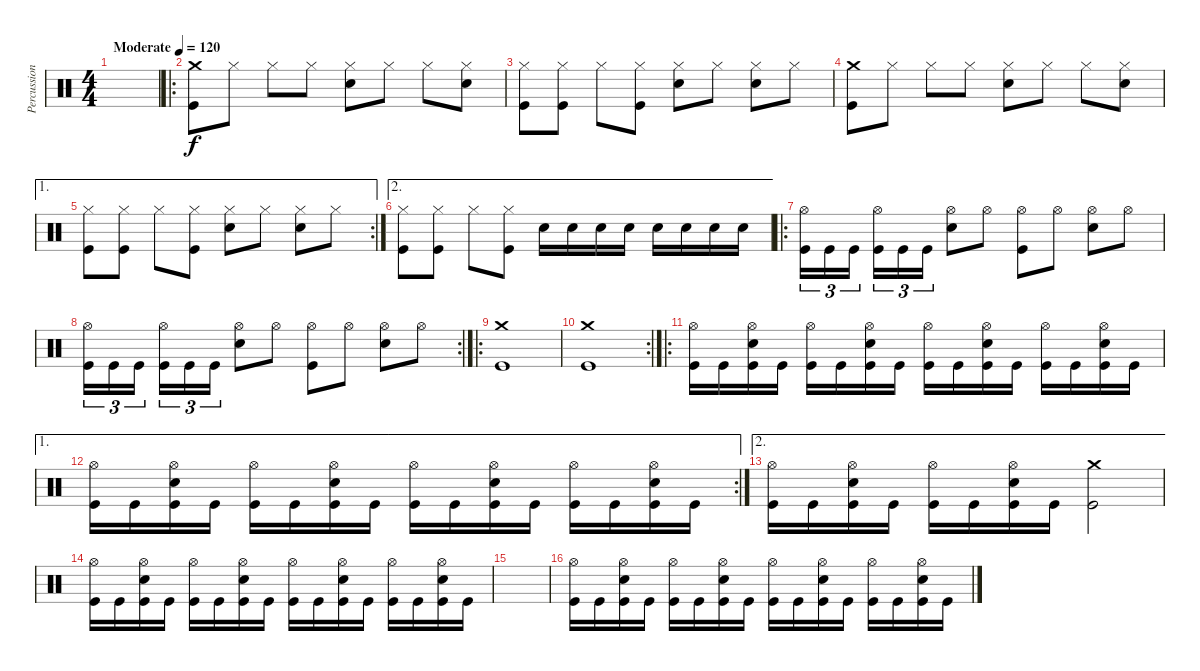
\track ("Percussion" "Percussion") {instrument percussion}
\staff {score}
\articulation defaults
\ts (4 4)
\tempo (120 "Moderate")
\clef neutral
\ks c
|
\ro
("Crash medium (hit)" "Kick (hit)").8 "Hi-Hat (closed)".8 "Hi-Hat (closed)".8 "Hi-Hat (closed)".8 ("Hi-Hat (closed)" "Snare (hit) 2").8 "Hi-Hat (closed)".8 "Hi-Hat (closed)".8 ("Hi-Hat (closed)" "Snare (hit) 2").8 |
("Hi-Hat (closed)" "Kick (hit)").8 ("Hi-Hat (closed)" "Kick (hit)").8 "Hi-Hat (closed)".8 ("Hi-Hat (closed)" "Kick (hit)").8 ("Hi-Hat (closed)" "Snare (hit) 2").8 "Hi-Hat (closed)".8 ("Hi-Hat (closed)" "Snare (hit) 2").8 "Hi-Hat (closed)".8 |
("Crash medium (hit)" "Kick (hit)").8 "Hi-Hat (closed)".8 "Hi-Hat (closed)".8 "Hi-Hat (closed)".8 ("Hi-Hat (closed)" "Snare (hit) 2").8 "Hi-Hat (closed)".8 "Hi-Hat (closed)".8 ("Hi-Hat (closed)" "Snare (hit) 2").8 |
\ae 1
\rc 2
("Hi-Hat (closed)" "Kick (hit)").8 ("Hi-Hat (closed)" "Kick (hit)").8 "Hi-Hat (closed)".8 ("Hi-Hat (closed)" "Kick (hit)").8 ("Hi-Hat (closed)" "Snare (hit) 2").8 "Hi-Hat (closed)".8 ("Hi-Hat (closed)" "Snare (hit) 2").8 "Hi-Hat (closed)".8 |
\ae 2
("Hi-Hat (closed)" "Kick (hit)").8 ("Hi-Hat (closed)" "Kick (hit)").8 "Hi-Hat (closed)".8 ("Hi-Hat (closed)" "Kick (hit)").8 "Snare (hit) 2".16 "Snare (hit) 2".16 "Snare (hit) 2".16 "Snare (hit) 2".16 "Snare (hit) 2".16 "Snare (hit) 2".16 "Snare (hit) 2".16 "Snare (hit) 2".16 |
\ro
("Hi-Hat (open)" "Kick (hit)").16{tu (3 2)} "Kick (hit)".16{tu (3 2)} "Kick (hit)".16{tu (3 2) beam splitsecondary} ("Hi-Hat (open)" "Kick (hit)").16{tu (3 2)} "Kick (hit)".16{tu (3 2)} "Kick (hit)".16{tu (3 2)} ("Hi-Hat (open)" "Snare (hit) 2").8 "Hi-Hat (open)".8 ("Hi-Hat (open)" "Kick (hit)").8 "Hi-Hat (open)".8 ("Hi-Hat (open)" "Snare (hit) 2").8 "Hi-Hat (open)".8 |
\rc 2
("Hi-Hat (open)" "Kick (hit)").16{tu (3 2)} "Kick (hit)".16{tu (3 2)} "Kick (hit)".16{tu (3 2) beam splitsecondary} ("Hi-Hat (open)" "Kick (hit)").16{tu (3 2)} "Kick (hit)".16{tu (3 2)} "Kick (hit)".16{tu (3 2)} ("Hi-Hat (open)" "Snare (hit) 2").8 "Hi-Hat (open)".8 ("Hi-Hat (open)" "Kick (hit)").8 "Hi-Hat (open)".8 ("Hi-Hat (open)" "Snare (hit) 2").8 "Hi-Hat (open)".8 |
\ro
("Crash medium (hit)" "Kick (hit)").1 |
\rc 2
("Crash medium (hit)" "Kick (hit)").1 |
\ro
("Hi-Hat (open)" "Kick (hit)").16 "Kick (hit)".16 ("Hi-Hat (open)" "Snare (hit) 2" "Kick (hit)").16 "Kick (hit)".16 ("Hi-Hat (open)" "Kick (hit)").16 "Kick (hit)".16 ("Hi-Hat (open)" "Snare (hit) 2" "Kick (hit)").16 "Kick (hit)".16 ("Hi-Hat (open)" "Kick (hit)").16 "Kick (hit)".16 ("Hi-Hat (open)" "Snare (hit) 2" "Kick (hit)").16 "Kick (hit)".16 ("Hi-Hat (open)" "Kick (hit)").16 "Kick (hit)".16 ("Hi-Hat (open)" "Snare (hit) 2" "Kick (hit)").16 "Kick (hit)".16 |
\ae 1
\rc 2
("Hi-Hat (open)" "Kick (hit)").16 "Kick (hit)".16 ("Hi-Hat (open)" "Snare (hit) 2" "Kick (hit)").16 "Kick (hit)".16 ("Hi-Hat (open)" "Kick (hit)").16 "Kick (hit)".16 ("Hi-Hat (open)" "Snare (hit) 2" "Kick (hit)").16 "Kick (hit)".16 ("Hi-Hat (open)" "Kick (hit)").16 "Kick (hit)".16 ("Hi-Hat (open)" "Snare (hit) 2" "Kick (hit)").16 "Kick (hit)".16 ("Hi-Hat (open)" "Kick (hit)").16 "Kick (hit)".16 ("Hi-Hat (open)" "Snare (hit) 2" "Kick (hit)").16 "Kick (hit)".16 |
\ae 2
("Hi-Hat (open)" "Kick (hit)").16 "Kick (hit)".16 ("Hi-Hat (open)" "Snare (hit) 2" "Kick (hit)").16 "Kick (hit)".16 ("Hi-Hat (open)" "Kick (hit)").16 "Kick (hit)".16 ("Hi-Hat (open)" "Snare (hit) 2" "Kick (hit)").16 "Kick (hit)".16 ("Crash medium (hit)" "Kick (hit)").2 |
("Hi-Hat (open)" "Kick (hit)").16 "Kick (hit)".16 ("Hi-Hat (open)" "Snare (hit) 2" "Kick (hit)").16 "Kick (hit)".16 ("Hi-Hat (open)" "Kick (hit)").16 "Kick (hit)".16 ("Hi-Hat (open)" "Snare (hit) 2" "Kick (hit)").16 "Kick (hit)".16 ("Hi-Hat (open)" "Kick (hit)").16 "Kick (hit)".16 ("Hi-Hat (open)" "Snare (hit) 2" "Kick (hit)").16 "Kick (hit)".16 ("Hi-Hat (open)" "Kick (hit)").16 "Kick (hit)".16 ("Hi-Hat (open)" "Snare (hit) 2" "Kick (hit)").16 "Kick (hit)".16 |
|
("Hi-Hat (open)" "Kick (hit)").16 "Kick (hit)".16 ("Hi-Hat (open)" "Snare (hit) 2" "Kick (hit)").16 "Kick (hit)".16 ("Hi-Hat (open)" "Kick (hit)").16 "Kick (hit)".16 ("Hi-Hat (open)" "Snare (hit) 2" "Kick (hit)").16 "Kick (hit)".16 ("Hi-Hat (open)" "Kick (hit)").16 "Kick (hit)".16 ("Hi-Hat (open)" "Snare (hit) 2" "Kick (hit)").16 "Kick (hit)".16 ("Hi-Hat (open)" "Kick (hit)").16 "Kick (hit)".16 ("Hi-Hat (open)" "Snare (hit) 2" "Kick (hit)").16 "Kick (hit)".16
